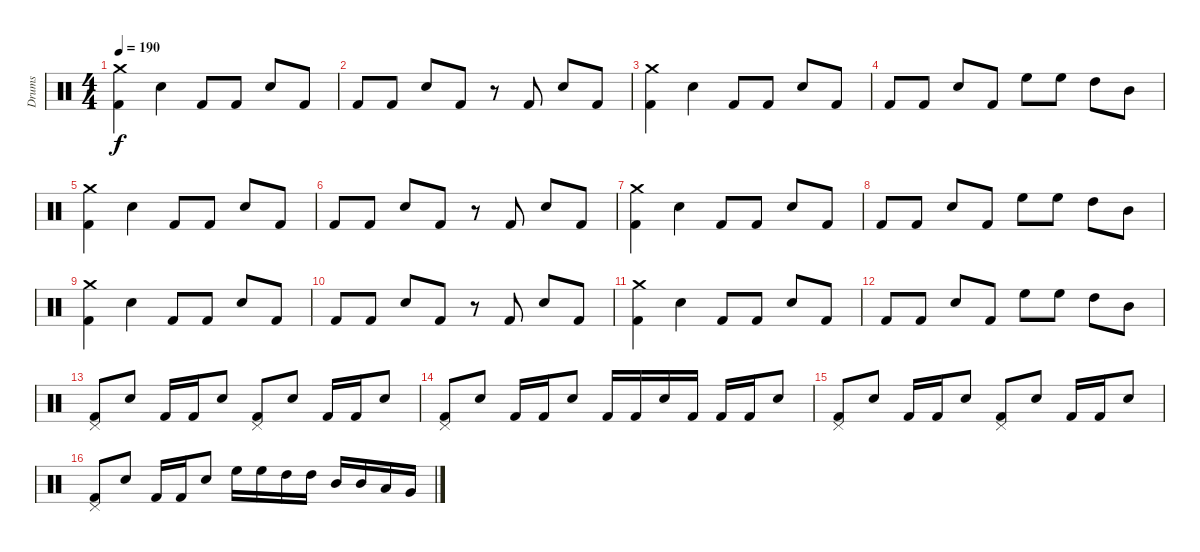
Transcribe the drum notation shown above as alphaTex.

\track ("Drums" "Drums") {instrument percussion}
\staff {score}
\articulation defaults
\ts (4 4)
\tempo 190
\clef neutral
\ks c
("Crash medium (hit)" "Kick (hit) 2").4{dy f} "Electric Snare (hit)".4 "Kick (hit) 2".8 "Kick (hit) 2".8 "Electric Snare (hit)".8 "Kick (hit) 2".8 |
"Kick (hit) 2".8 "Kick (hit) 2".8 "Electric Snare (hit)".8 "Kick (hit) 2".8 r.8 "Kick (hit) 2".8 "Electric Snare (hit)".8 "Kick (hit) 2".8 |
("Crash medium (hit)" "Kick (hit) 2").4 "Electric Snare (hit)".4 "Kick (hit) 2".8 "Kick (hit) 2".8 "Electric Snare (hit)".8 "Kick (hit) 2".8 |
"Kick (hit) 2".8 "Kick (hit) 2".8 "Electric Snare (hit)".8 "Kick (hit) 2".8 "High Floor Tom (hit)".8 "High Floor Tom (hit)".8 "High Tom (hit)".8 "Mid Tom (hit)".8 |
("Crash medium (hit)" "Kick (hit) 2").4 "Electric Snare (hit)".4 "Kick (hit) 2".8 "Kick (hit) 2".8 "Electric Snare (hit)".8 "Kick (hit) 2".8 |
"Kick (hit) 2".8 "Kick (hit) 2".8 "Electric Snare (hit)".8 "Kick (hit) 2".8 r.8 "Kick (hit) 2".8 "Electric Snare (hit)".8 "Kick (hit) 2".8 |
("Crash medium (hit)" "Kick (hit) 2").4 "Electric Snare (hit)".4 "Kick (hit) 2".8 "Kick (hit) 2".8 "Electric Snare (hit)".8 "Kick (hit) 2".8 |
"Kick (hit) 2".8 "Kick (hit) 2".8 "Electric Snare (hit)".8 "Kick (hit) 2".8 "High Floor Tom (hit)".8 "High Floor Tom (hit)".8 "High Tom (hit)".8 "Mid Tom (hit)".8 |
("Crash medium (hit)" "Kick (hit) 2").4 "Electric Snare (hit)".4 "Kick (hit) 2".8 "Kick (hit) 2".8 "Electric Snare (hit)".8 "Kick (hit) 2".8 |
"Kick (hit) 2".8 "Kick (hit) 2".8 "Electric Snare (hit)".8 "Kick (hit) 2".8 r.8 "Kick (hit) 2".8 "Electric Snare (hit)".8 "Kick (hit) 2".8 |
("Crash medium (hit)" "Kick (hit) 2").4 "Electric Snare (hit)".4 "Kick (hit) 2".8 "Kick (hit) 2".8 "Electric Snare (hit)".8 "Kick (hit) 2".8 |
"Kick (hit) 2".8 "Kick (hit) 2".8 "Electric Snare (hit)".8 "Kick (hit) 2".8 "High Floor Tom (hit)".8 "High Floor Tom (hit)".8 "High Tom (hit)".8 "Mid Tom (hit)".8 |
("Pedal Hi-Hat (hit)" "Kick (hit) 2").8 "Electric Snare (hit)".8 "Kick (hit) 2".16 "Kick (hit) 2".16 "Electric Snare (hit)".8 ("Pedal Hi-Hat (hit)" "Kick (hit) 2").8 "Electric Snare (hit)".8 "Kick (hit) 2".16 "Kick (hit) 2".16 "Electric Snare (hit)".8 |
("Pedal Hi-Hat (hit)" "Kick (hit) 2").8 "Electric Snare (hit)".8 "Kick (hit) 2".16 "Kick (hit) 2".16 "Electric Snare (hit)".8 "Kick (hit) 2".16 "Kick (hit) 2".16 "Electric Snare (hit)".16 "Kick (hit) 2".16 "Kick (hit) 2".16 "Kick (hit) 2".16 "Electric Snare (hit)".8 |
("Pedal Hi-Hat (hit)" "Kick (hit) 2").8 "Electric Snare (hit)".8 "Kick (hit) 2".16 "Kick (hit) 2".16 "Electric Snare (hit)".8 ("Pedal Hi-Hat (hit)" "Kick (hit) 2").8 "Electric Snare (hit)".8 "Kick (hit) 2".16 "Kick (hit) 2".16 "Electric Snare (hit)".8 |
("Pedal Hi-Hat (hit)" "Kick (hit) 2").8 "Electric Snare (hit)".8 "Kick (hit) 2".16 "Kick (hit) 2".16 "Electric Snare (hit)".8 "High Floor Tom (hit)".16 "High Floor Tom (hit)".16 "High Tom (hit)".16 "High Tom (hit)".16 "Mid Tom (hit)".16 "Mid Tom (hit)".16 "Low Tom (hit)".16 "Very Low Tom (hit)".16
